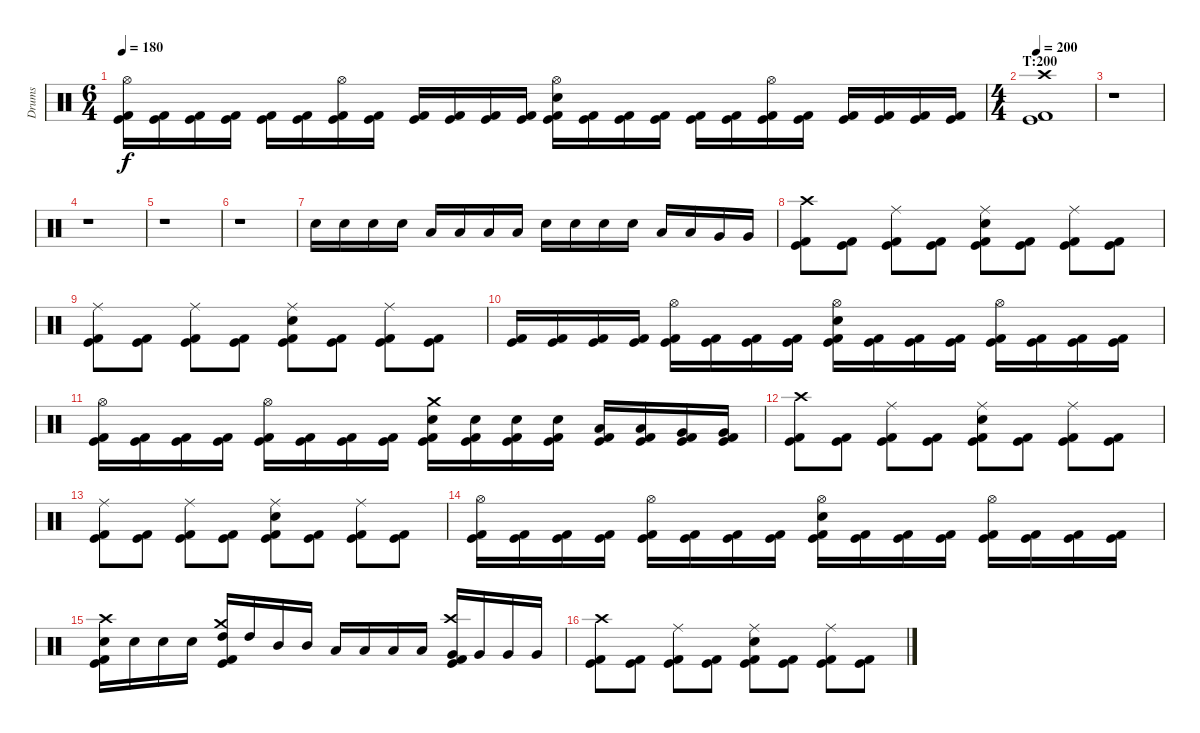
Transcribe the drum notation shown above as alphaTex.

\track ("Drums" "Drums") {instrument percussion}
\staff {score}
\articulation defaults
\ts (6 4)
\tempo 180
\clef neutral
\ks c
("Hi-Hat (open)" "Kick (hit)" "Kick (hit) 2").16{dy f} ("Kick (hit)" "Kick (hit) 2").16 ("Kick (hit)" "Kick (hit) 2").16 ("Kick (hit)" "Kick (hit) 2").16 ("Kick (hit)" "Kick (hit) 2").16 ("Kick (hit)" "Kick (hit) 2").16 ("Hi-Hat (open)" "Kick (hit)" "Kick (hit) 2").16 ("Kick (hit)" "Kick (hit) 2").16 ("Kick (hit)" "Kick (hit) 2").16 ("Kick (hit)" "Kick (hit) 2").16 ("Kick (hit)" "Kick (hit) 2").16 ("Kick (hit)" "Kick (hit) 2").16 ("Hi-Hat (open)" "Electric Snare (hit)" "Kick (hit)" "Kick (hit) 2").16 ("Kick (hit)" "Kick (hit) 2").16 ("Kick (hit)" "Kick (hit) 2").16 ("Kick (hit)" "Kick (hit) 2").16 ("Kick (hit)" "Kick (hit) 2").16 ("Kick (hit)" "Kick (hit) 2").16 ("Hi-Hat (open)" "Kick (hit)" "Kick (hit) 2").16 ("Kick (hit)" "Kick (hit) 2").16 ("Kick (hit)" "Kick (hit) 2").16 ("Kick (hit)" "Kick (hit) 2").16 ("Kick (hit)" "Kick (hit) 2").16 ("Kick (hit)" "Kick (hit) 2").16 |
\ts (4 4)
\section ("" "T:200")
\tempo 200
("Crash high (hit)" "Kick (hit)" "Kick (hit) 2").1 |
r.1 |
r.1 |
r.1 |
r.1 |
"Electric Snare (hit)".16 "Electric Snare (hit)".16 "Electric Snare (hit)".16 "Electric Snare (hit)".16 "Low Tom (hit)".16 "Low Tom (hit)".16 "Low Tom (hit)".16 "Low Tom (hit)".16 "Electric Snare (hit)".16 "Electric Snare (hit)".16 "Electric Snare (hit)".16 "Electric Snare (hit)".16 "Low Tom (hit)".16 "Low Tom (hit)".16 "Very Low Tom (hit)".16 "Very Low Tom (hit)".16 |
("Crash high (hit)" "Kick (hit)" "Kick (hit) 2").8 ("Kick (hit)" "Kick (hit) 2").8 ("Ride (middle)" "Kick (hit)" "Kick (hit) 2").8 ("Kick (hit)" "Kick (hit) 2").8 ("Ride (middle)" "Electric Snare (hit)" "Kick (hit)" "Kick (hit) 2").8 ("Kick (hit)" "Kick (hit) 2").8 ("Ride (middle)" "Kick (hit)" "Kick (hit) 2").8 ("Kick (hit)" "Kick (hit) 2").8 |
("Ride (middle)" "Kick (hit)" "Kick (hit) 2").8 ("Kick (hit)" "Kick (hit) 2").8 ("Ride (middle)" "Kick (hit)" "Kick (hit) 2").8 ("Kick (hit)" "Kick (hit) 2").8 ("Ride (middle)" "Electric Snare (hit)" "Kick (hit)" "Kick (hit) 2").8 ("Kick (hit)" "Kick (hit) 2").8 ("Ride (middle)" "Kick (hit)" "Kick (hit) 2").8 ("Kick (hit)" "Kick (hit) 2").8 |
("Kick (hit)" "Kick (hit) 2").16 ("Kick (hit)" "Kick (hit) 2").16 ("Kick (hit)" "Kick (hit) 2").16 ("Kick (hit)" "Kick (hit) 2").16 ("Hi-Hat (open)" "Kick (hit)" "Kick (hit) 2").16 ("Kick (hit)" "Kick (hit) 2").16 ("Kick (hit)" "Kick (hit) 2").16 ("Kick (hit)" "Kick (hit) 2").16 ("Hi-Hat (open)" "Electric Snare (hit)" "Kick (hit)" "Kick (hit) 2").16 ("Kick (hit)" "Kick (hit) 2").16 ("Kick (hit)" "Kick (hit) 2").16 ("Kick (hit)" "Kick (hit) 2").16 ("Hi-Hat (open)" "Kick (hit)" "Kick (hit) 2").16 ("Kick (hit)" "Kick (hit) 2").16 ("Kick (hit)" "Kick (hit) 2").16 ("Kick (hit)" "Kick (hit) 2").16 |
("Hi-Hat (open)" "Kick (hit)" "Kick (hit) 2").16 ("Kick (hit)" "Kick (hit) 2").16 ("Kick (hit)" "Kick (hit) 2").16 ("Kick (hit)" "Kick (hit) 2").16 ("Hi-Hat (open)" "Kick (hit)" "Kick (hit) 2").16 ("Kick (hit)" "Kick (hit) 2").16 ("Kick (hit)" "Kick (hit) 2").16 ("Kick (hit)" "Kick (hit) 2").16 ("Crash medium (hit)" "Electric Snare (hit)" "Kick (hit)" "Kick (hit) 2").16 ("Electric Snare (hit)" "Kick (hit)" "Kick (hit) 2").16 ("Electric Snare (hit)" "Kick (hit)" "Kick (hit) 2").16 ("Electric Snare (hit)" "Kick (hit)" "Kick (hit) 2").16 ("Low Tom (hit)" "Kick (hit)" "Kick (hit) 2").16 ("Low Tom (hit)" "Kick (hit)" "Kick (hit) 2").16 ("Very Low Tom (hit)" "Kick (hit)" "Kick (hit) 2").16 ("Very Low Tom (hit)" "Kick (hit)" "Kick (hit) 2").16 |
("Crash high (hit)" "Kick (hit)" "Kick (hit) 2").8 ("Kick (hit)" "Kick (hit) 2").8 ("Ride (middle)" "Kick (hit)" "Kick (hit) 2").8 ("Kick (hit)" "Kick (hit) 2").8 ("Ride (middle)" "Electric Snare (hit)" "Kick (hit)" "Kick (hit) 2").8 ("Kick (hit)" "Kick (hit) 2").8 ("Ride (middle)" "Kick (hit)" "Kick (hit) 2").8 ("Kick (hit)" "Kick (hit) 2").8 |
("Ride (middle)" "Kick (hit)" "Kick (hit) 2").8 ("Kick (hit)" "Kick (hit) 2").8 ("Ride (middle)" "Kick (hit)" "Kick (hit) 2").8 ("Kick (hit)" "Kick (hit) 2").8 ("Ride (middle)" "Electric Snare (hit)" "Kick (hit)" "Kick (hit) 2").8 ("Kick (hit)" "Kick (hit) 2").8 ("Ride (middle)" "Kick (hit)" "Kick (hit) 2").8 ("Kick (hit)" "Kick (hit) 2").8 |
("Hi-Hat (open)" "Kick (hit)" "Kick (hit) 2").16 ("Kick (hit)" "Kick (hit) 2").16 ("Kick (hit)" "Kick (hit) 2").16 ("Kick (hit)" "Kick (hit) 2").16 ("Hi-Hat (open)" "Kick (hit)" "Kick (hit) 2").16 ("Kick (hit)" "Kick (hit) 2").16 ("Kick (hit)" "Kick (hit) 2").16 ("Kick (hit)" "Kick (hit) 2").16 ("Hi-Hat (open)" "Electric Snare (hit)" "Kick (hit)" "Kick (hit) 2").16 ("Kick (hit)" "Kick (hit) 2").16 ("Kick (hit)" "Kick (hit) 2").16 ("Kick (hit)" "Kick (hit) 2").16 ("Hi-Hat (open)" "Kick (hit)" "Kick (hit) 2").16 ("Kick (hit)" "Kick (hit) 2").16 ("Kick (hit)" "Kick (hit) 2").16 ("Kick (hit)" "Kick (hit) 2").16 |
("Crash high (hit)" "Electric Snare (hit)" "Kick (hit)" "Kick (hit) 2").16 "Electric Snare (hit)".16 "Electric Snare (hit)".16 "Electric Snare (hit)".16 ("Crash medium (hit)" "High Tom (hit)" "Kick (hit)" "Kick (hit) 2").16 "High Tom (hit)".16 "Mid Tom (hit)".16 "Mid Tom (hit)".16 "Low Tom (hit)".16 "Low Tom (hit)".16 "Low Tom (hit)".16 "Low Tom (hit)".16 ("Crash high (hit)" "Very Low Tom (hit)" "Kick (hit)" "Kick (hit) 2").16 "Very Low Tom (hit)".16 "Very Low Tom (hit)".16 "Very Low Tom (hit)".16 |
("Crash high (hit)" "Kick (hit)" "Kick (hit) 2").8 ("Kick (hit)" "Kick (hit) 2").8 ("Ride (middle)" "Kick (hit)" "Kick (hit) 2").8 ("Kick (hit)" "Kick (hit) 2").8 ("Ride (middle)" "Electric Snare (hit)" "Kick (hit)" "Kick (hit) 2").8 ("Kick (hit)" "Kick (hit) 2").8 ("Ride (middle)" "Kick (hit)" "Kick (hit) 2").8 ("Kick (hit)" "Kick (hit) 2").8
